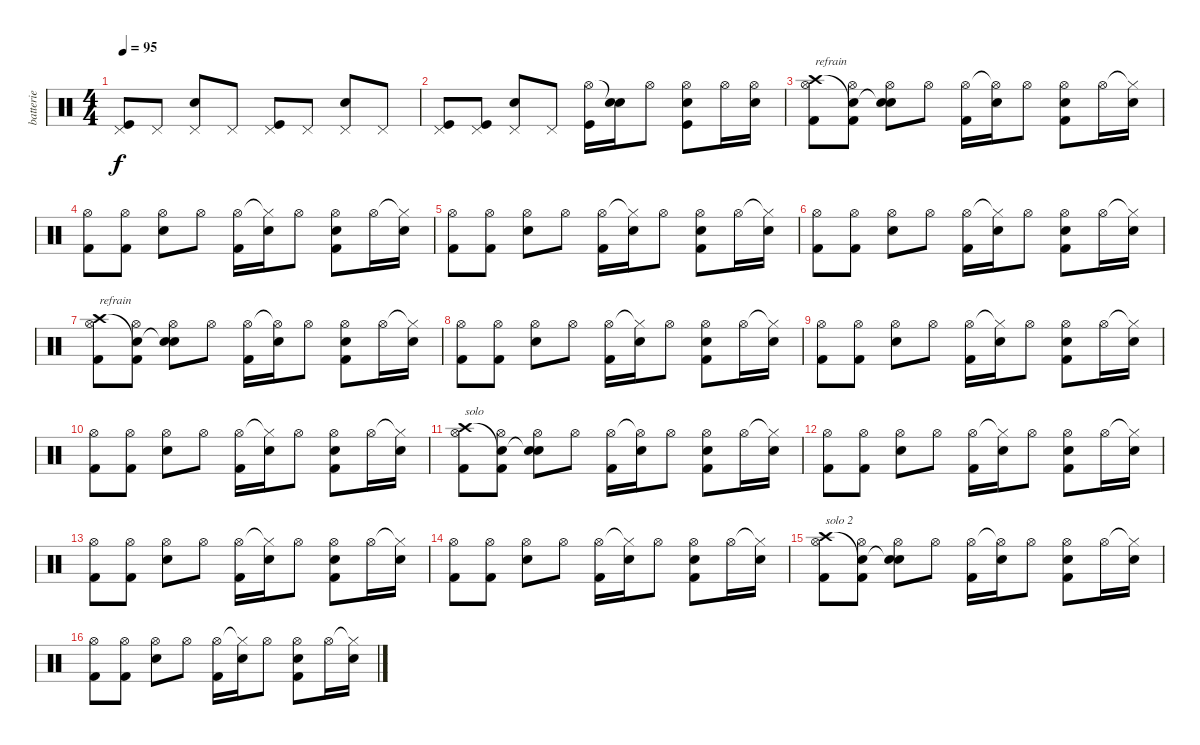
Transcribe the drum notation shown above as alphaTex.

\track ("batterie" "batterie") {instrument percussion}
\staff {score}
\articulation defaults
\ts (4 4)
\tempo 95
\clef neutral
\ks c
("Pedal Hi-Hat (hit)" "Kick (hit)").8{dy f} "Pedal Hi-Hat (hit)".8 ("Pedal Hi-Hat (hit)" "Electric Snare (hit)").8 "Pedal Hi-Hat (hit)".8 ("Pedal Hi-Hat (hit)" "Kick (hit)").8 "Pedal Hi-Hat (hit)".8 ("Pedal Hi-Hat (hit)" "Electric Snare (hit)").8 "Pedal Hi-Hat (hit)".8 |
("Pedal Hi-Hat (hit)" "Kick (hit)").8 ("Pedal Hi-Hat (hit)" "Kick (hit)").8 ("Pedal Hi-Hat (hit)" "Electric Snare (hit)").8 "Pedal Hi-Hat (hit)".8 ("Hi-Hat (open)" "Kick (hit)").16 ("Snare (hit)"{t} "Snare (hit) 2").16 "Hi-Hat (open)".8 ("Hi-Hat (open)" "Snare (hit) 2" "Kick (hit)").8 "Hi-Hat (open)".16 ("Hi-Hat (open)" "Snare (hit) 2").16 |
("Crash high (hit)" "Hi-Hat (open)" "Kick (hit) 2").8{txt "refrain"} ("Snare (hit)"{t} "Hi-Hat (open)" "Kick (hit) 2").8 ("Snare (hit)"{t} "Hi-Hat (open)" "Snare (hit) 2").8 "Hi-Hat (open)".8 ("Hi-Hat (open)" "Kick (hit) 2").16 ("Hi-Hat (open)"{t} "Snare (hit) 2").16 "Hi-Hat (open)".8 ("Hi-Hat (open)" "Snare (hit) 2" "Kick (hit) 2").8 "Hi-Hat (open)".16 ("Hi-Hat (closed)"{t} "Snare (hit) 2").16 |
("Hi-Hat (open)" "Kick (hit) 2").8 ("Hi-Hat (open)" "Kick (hit) 2").8 ("Hi-Hat (open)" "Snare (hit) 2").8 "Hi-Hat (open)".8 ("Hi-Hat (open)" "Kick (hit) 2").16 ("Hi-Hat (closed)"{t} "Snare (hit) 2").16 "Hi-Hat (open)".8 ("Hi-Hat (open)" "Snare (hit) 2" "Kick (hit) 2").8 "Hi-Hat (open)".16 ("Hi-Hat (closed)"{t} "Snare (hit) 2").16 |
("Hi-Hat (open)" "Kick (hit) 2").8 ("Hi-Hat (open)" "Kick (hit) 2").8 ("Hi-Hat (open)" "Snare (hit) 2").8 "Hi-Hat (open)".8 ("Hi-Hat (open)" "Kick (hit) 2").16 ("Hi-Hat (closed)"{t} "Snare (hit) 2").16 "Hi-Hat (open)".8 ("Hi-Hat (open)" "Snare (hit) 2" "Kick (hit) 2").8 "Hi-Hat (open)".16 ("Hi-Hat (closed)"{t} "Snare (hit) 2").16 |
("Hi-Hat (open)" "Kick (hit) 2").8 ("Hi-Hat (open)" "Kick (hit) 2").8 ("Hi-Hat (open)" "Snare (hit) 2").8 "Hi-Hat (open)".8 ("Hi-Hat (open)" "Kick (hit) 2").16 ("Hi-Hat (closed)"{t} "Snare (hit) 2").16 "Hi-Hat (open)".8 ("Hi-Hat (open)" "Snare (hit) 2" "Kick (hit) 2").8 "Hi-Hat (open)".16 ("Hi-Hat (closed)"{t} "Snare (hit) 2").16 |
("Crash high (hit)" "Hi-Hat (open)" "Kick (hit) 2").8{txt "refrain"} ("Snare (hit)"{t} "Hi-Hat (open)" "Kick (hit) 2").8 ("Snare (hit)"{t} "Hi-Hat (open)" "Snare (hit) 2").8 "Hi-Hat (open)".8 ("Hi-Hat (open)" "Kick (hit) 2").16 ("Hi-Hat (open)"{t} "Snare (hit) 2").16 "Hi-Hat (open)".8 ("Hi-Hat (open)" "Snare (hit) 2" "Kick (hit) 2").8 "Hi-Hat (open)".16 ("Hi-Hat (closed)"{t} "Snare (hit) 2").16 |
("Hi-Hat (open)" "Kick (hit) 2").8 ("Hi-Hat (open)" "Kick (hit) 2").8 ("Hi-Hat (open)" "Snare (hit) 2").8 "Hi-Hat (open)".8 ("Hi-Hat (open)" "Kick (hit) 2").16 ("Hi-Hat (closed)"{t} "Snare (hit) 2").16 "Hi-Hat (open)".8 ("Hi-Hat (open)" "Snare (hit) 2" "Kick (hit) 2").8 "Hi-Hat (open)".16 ("Hi-Hat (closed)"{t} "Snare (hit) 2").16 |
("Hi-Hat (open)" "Kick (hit) 2").8 ("Hi-Hat (open)" "Kick (hit) 2").8 ("Hi-Hat (open)" "Snare (hit) 2").8 "Hi-Hat (open)".8 ("Hi-Hat (open)" "Kick (hit) 2").16 ("Hi-Hat (closed)"{t} "Snare (hit) 2").16 "Hi-Hat (open)".8 ("Hi-Hat (open)" "Snare (hit) 2" "Kick (hit) 2").8 "Hi-Hat (open)".16 ("Hi-Hat (closed)"{t} "Snare (hit) 2").16 |
("Hi-Hat (open)" "Kick (hit) 2").8 ("Hi-Hat (open)" "Kick (hit) 2").8 ("Hi-Hat (open)" "Snare (hit) 2").8 "Hi-Hat (open)".8 ("Hi-Hat (open)" "Kick (hit) 2").16 ("Hi-Hat (closed)"{t} "Snare (hit) 2").16 "Hi-Hat (open)".8 ("Hi-Hat (open)" "Snare (hit) 2" "Kick (hit) 2").8 "Hi-Hat (open)".16 ("Hi-Hat (closed)"{t} "Snare (hit) 2").16 |
("Crash high (hit)" "Hi-Hat (open)" "Kick (hit) 2").8{txt "solo"} ("Snare (hit)"{t} "Hi-Hat (open)" "Kick (hit) 2").8 ("Snare (hit)"{t} "Hi-Hat (open)" "Snare (hit) 2").8 "Hi-Hat (open)".8 ("Hi-Hat (open)" "Kick (hit) 2").16 ("Hi-Hat (open)"{t} "Snare (hit) 2").16 "Hi-Hat (open)".8 ("Hi-Hat (open)" "Snare (hit) 2" "Kick (hit) 2").8 "Hi-Hat (open)".16 ("Hi-Hat (closed)"{t} "Snare (hit) 2").16 |
("Hi-Hat (open)" "Kick (hit) 2").8 ("Hi-Hat (open)" "Kick (hit) 2").8 ("Hi-Hat (open)" "Snare (hit) 2").8 "Hi-Hat (open)".8 ("Hi-Hat (open)" "Kick (hit) 2").16 ("Hi-Hat (closed)"{t} "Snare (hit) 2").16 "Hi-Hat (open)".8 ("Hi-Hat (open)" "Snare (hit) 2" "Kick (hit) 2").8 "Hi-Hat (open)".16 ("Hi-Hat (closed)"{t} "Snare (hit) 2").16 |
("Hi-Hat (open)" "Kick (hit) 2").8 ("Hi-Hat (open)" "Kick (hit) 2").8 ("Hi-Hat (open)" "Snare (hit) 2").8 "Hi-Hat (open)".8 ("Hi-Hat (open)" "Kick (hit) 2").16 ("Hi-Hat (closed)"{t} "Snare (hit) 2").16 "Hi-Hat (open)".8 ("Hi-Hat (open)" "Snare (hit) 2" "Kick (hit) 2").8 "Hi-Hat (open)".16 ("Hi-Hat (closed)"{t} "Snare (hit) 2").16 |
("Hi-Hat (open)" "Kick (hit) 2").8 ("Hi-Hat (open)" "Kick (hit) 2").8 ("Hi-Hat (open)" "Snare (hit) 2").8 "Hi-Hat (open)".8 ("Hi-Hat (open)" "Kick (hit) 2").16 ("Hi-Hat (closed)"{t} "Snare (hit) 2").16 "Hi-Hat (open)".8 ("Hi-Hat (open)" "Snare (hit) 2" "Kick (hit) 2").8 "Hi-Hat (open)".16 ("Hi-Hat (closed)"{t} "Snare (hit) 2").16 |
("Crash high (hit)" "Hi-Hat (open)" "Kick (hit) 2").8{txt "solo 2"} ("Snare (hit)"{t} "Hi-Hat (open)" "Kick (hit) 2").8 ("Snare (hit)"{t} "Hi-Hat (open)" "Snare (hit) 2").8 "Hi-Hat (open)".8 ("Hi-Hat (open)" "Kick (hit) 2").16 ("Hi-Hat (open)"{t} "Snare (hit) 2").16 "Hi-Hat (open)".8 ("Hi-Hat (open)" "Snare (hit) 2" "Kick (hit) 2").8 "Hi-Hat (open)".16 ("Hi-Hat (closed)"{t} "Snare (hit) 2").16 |
("Hi-Hat (open)" "Kick (hit) 2").8 ("Hi-Hat (open)" "Kick (hit) 2").8 ("Hi-Hat (open)" "Snare (hit) 2").8 "Hi-Hat (open)".8 ("Hi-Hat (open)" "Kick (hit) 2").16 ("Hi-Hat (closed)"{t} "Snare (hit) 2").16 "Hi-Hat (open)".8 ("Hi-Hat (open)" "Snare (hit) 2" "Kick (hit) 2").8 "Hi-Hat (open)".16 ("Hi-Hat (closed)"{t} "Snare (hit) 2").16
